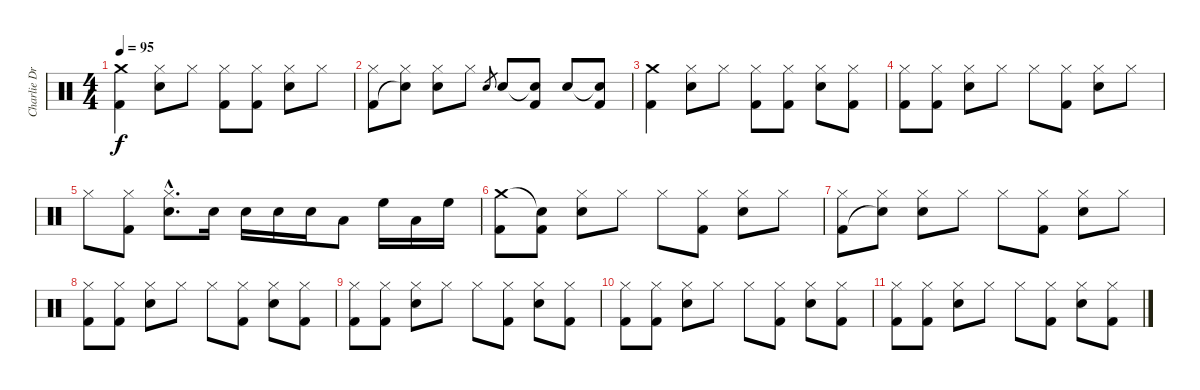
\track ("Charlie Drums" "Charlie Dr") {instrument percussion}
\staff {score}
\articulation defaults
\ts (4 4)
\tempo 95
\clef neutral
\ks c
("Crash medium (hit)" "Kick (hit) 2").4{dy f} ("Hi-Hat (closed)" "Snare (hit) 2").8 "Hi-Hat (closed)".8 ("Hi-Hat (closed)" "Kick (hit) 2").8 ("Hi-Hat (closed)" "Kick (hit) 2").8 ("Hi-Hat (closed)" "Snare (hit) 2").8 "Hi-Hat (closed)".8 |
("Hi-Hat (closed)" "Kick (hit) 2").8 ("Hi-Hat (closed)" "Snare (hit)"{t}).8 ("Hi-Hat (closed)" "Snare (hit) 2").8 "Hi-Hat (closed)".8 "Snare (hit) 2".8{gr} "Snare (hit) 2".8 ("Snare (hit)"{t} "Kick (hit) 2").8 "Snare (hit) 2".8 ("Snare (hit)"{t} "Kick (hit) 2").8 |
("Crash medium (hit)" "Kick (hit) 2").4 ("Hi-Hat (closed)" "Snare (hit) 2").8 "Hi-Hat (closed)".8 ("Hi-Hat (closed)" "Kick (hit) 2").8 ("Hi-Hat (closed)" "Kick (hit) 2").8 ("Hi-Hat (closed)" "Snare (hit) 2").8 ("Hi-Hat (closed)" "Kick (hit) 2").8 |
("Hi-Hat (closed)" "Kick (hit) 2").8 ("Hi-Hat (closed)" "Kick (hit) 2").8 ("Hi-Hat (closed)" "Snare (hit) 2").8 "Hi-Hat (closed)".8 "Hi-Hat (closed)".8 ("Hi-Hat (closed)" "Kick (hit) 2").8 ("Hi-Hat (closed)" "Snare (hit) 2").8 "Hi-Hat (closed)".8 |
"Hi-Hat (closed)".8 ("Hi-Hat (closed)" "Kick (hit) 2").8 ("Hi-Hat (closed)"{hac} "Snare (hit) 2"{hac}).8{d} "Snare (hit) 2".16 "Snare (hit) 2".16 "Snare (hit) 2".16 "Snare (hit) 2".16 "Low Tom (hit)".8 "High Floor Tom (hit)".16 "Low Tom (hit)".16 "High Floor Tom (hit)".16 |
("Crash medium (hit)" "Kick (hit) 2").8 ("Snare (hit)"{t} "Kick (hit) 2").8 ("Hi-Hat (closed)" "Snare (hit) 2").8 "Hi-Hat (closed)".8 "Hi-Hat (closed)".8 ("Hi-Hat (closed)" "Kick (hit) 2").8 ("Hi-Hat (closed)" "Snare (hit) 2").8 "Hi-Hat (closed)".8 |
("Hi-Hat (closed)" "Kick (hit) 2").8 ("Hi-Hat (closed)" "Snare (hit)"{t}).8 ("Hi-Hat (closed)" "Snare (hit) 2").8 "Hi-Hat (closed)".8 "Hi-Hat (closed)".8 ("Hi-Hat (closed)" "Kick (hit) 2").8 ("Hi-Hat (closed)" "Snare (hit) 2").8 "Hi-Hat (closed)".8 |
("Hi-Hat (closed)" "Kick (hit) 2").8 ("Hi-Hat (closed)" "Kick (hit) 2").8 ("Hi-Hat (closed)" "Snare (hit) 2").8 "Hi-Hat (closed)".8 "Hi-Hat (closed)".8 ("Hi-Hat (closed)" "Kick (hit) 2").8 ("Hi-Hat (closed)" "Snare (hit) 2").8 ("Hi-Hat (closed)" "Kick (hit) 2").8 |
("Hi-Hat (closed)" "Kick (hit) 2").8 ("Hi-Hat (closed)" "Kick (hit) 2").8 ("Hi-Hat (closed)" "Snare (hit) 2").8 "Hi-Hat (closed)".8 "Hi-Hat (closed)".8 ("Hi-Hat (closed)" "Kick (hit) 2").8 ("Hi-Hat (closed)" "Snare (hit) 2").8 ("Hi-Hat (closed)" "Kick (hit) 2").8 |
("Hi-Hat (closed)" "Kick (hit) 2").8{volume 0} ("Hi-Hat (closed)" "Kick (hit) 2").8 ("Hi-Hat (closed)" "Snare (hit) 2").8 "Hi-Hat (closed)".8 "Hi-Hat (closed)".8 ("Hi-Hat (closed)" "Kick (hit) 2").8 ("Hi-Hat (closed)" "Snare (hit) 2").8 ("Hi-Hat (closed)" "Kick (hit) 2").8 |
("Hi-Hat (closed)" "Kick (hit) 2").8 ("Hi-Hat (closed)" "Kick (hit) 2").8 ("Hi-Hat (closed)" "Snare (hit) 2").8 "Hi-Hat (closed)".8 "Hi-Hat (closed)".8 ("Hi-Hat (closed)" "Kick (hit) 2").8 ("Hi-Hat (closed)" "Snare (hit) 2").8 ("Hi-Hat (closed)" "Kick (hit) 2").8
